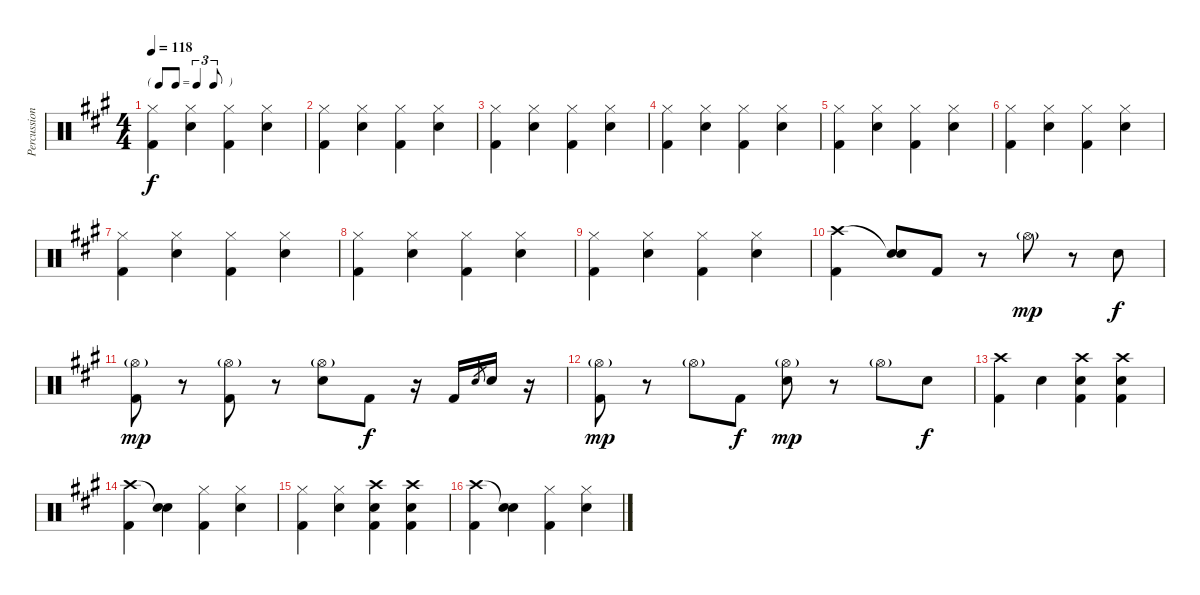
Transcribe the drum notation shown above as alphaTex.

\track ("Percussion" "Percussion") {instrument percussion}
\staff {score}
\articulation defaults
\ts (4 4)
\tf triplet8th
\tempo 118
\clef neutral
\ks a
("Hi-Hat (closed)" "Kick (hit) 2").4{dy f} ("Hi-Hat (closed)" "Snare (hit) 2").4 ("Hi-Hat (closed)" "Kick (hit) 2").4 ("Hi-Hat (closed)" "Snare (hit) 2").4 |
("Hi-Hat (closed)" "Kick (hit) 2").4 ("Hi-Hat (closed)" "Snare (hit) 2").4 ("Hi-Hat (closed)" "Kick (hit) 2").4 ("Hi-Hat (closed)" "Snare (hit) 2").4 |
("Hi-Hat (closed)" "Kick (hit) 2").4 ("Hi-Hat (closed)" "Snare (hit) 2").4 ("Hi-Hat (closed)" "Kick (hit) 2").4 ("Hi-Hat (closed)" "Snare (hit) 2").4 |
("Hi-Hat (closed)" "Kick (hit) 2").4 ("Hi-Hat (closed)" "Snare (hit) 2").4 ("Hi-Hat (closed)" "Kick (hit) 2").4 ("Hi-Hat (closed)" "Snare (hit) 2").4 |
("Hi-Hat (closed)" "Kick (hit) 2").4 ("Hi-Hat (closed)" "Snare (hit) 2").4 ("Hi-Hat (closed)" "Kick (hit) 2").4 ("Hi-Hat (closed)" "Snare (hit) 2").4 |
("Hi-Hat (closed)" "Kick (hit) 2").4 ("Hi-Hat (closed)" "Snare (hit) 2").4 ("Hi-Hat (closed)" "Kick (hit) 2").4 ("Hi-Hat (closed)" "Snare (hit) 2").4 |
("Hi-Hat (closed)" "Kick (hit) 2").4 ("Hi-Hat (closed)" "Snare (hit) 2").4 ("Hi-Hat (closed)" "Kick (hit) 2").4 ("Hi-Hat (closed)" "Snare (hit) 2").4 |
("Hi-Hat (closed)" "Kick (hit) 2").4 ("Hi-Hat (closed)" "Snare (hit) 2").4 ("Hi-Hat (closed)" "Kick (hit) 2").4 ("Hi-Hat (closed)" "Snare (hit) 2").4 |
("Hi-Hat (closed)" "Kick (hit) 2").4 ("Hi-Hat (closed)" "Snare (hit) 2").4 ("Hi-Hat (closed)" "Kick (hit) 2").4 ("Hi-Hat (closed)" "Snare (hit) 2").4 |
("Crash high (hit)" "Kick (hit) 2").4 ("Snare (hit)"{t} "Snare (hit) 2").8 "Kick (hit) 2".8 r.8 "Hi-Hat (open)"{g}.8{dy mp} r.8 "Snare (hit) 2".8{dy f} |
("Hi-Hat (open)"{g} "Kick (hit) 2").8{dy mp} r.8 ("Hi-Hat (open)"{g} "Kick (hit) 2").8 r.8 ("Hi-Hat (open)"{g} "Snare (hit) 2").8 "Kick (hit) 2".8{dy f} r.16 "Kick (hit) 2".16 "Snare (hit) 2".8{gr} "Snare (hit) 2".16 r.16 |
("Hi-Hat (open)"{g} "Kick (hit) 2").8{dy mp} r.8 "Hi-Hat (open)"{g}.8 "Kick (hit) 2".8{dy f} ("Hi-Hat (open)"{g} "Snare (hit) 2").8{dy mp} r.8 "Hi-Hat (open)"{g}.8 "Snare (hit) 2".8{dy f} |
("Crash high (hit)" "Kick (hit) 2").4 "Snare (hit) 2".4 ("Crash high (hit)" "Snare (hit) 2" "Kick (hit) 2").4 ("Crash high (hit)" "Snare (hit) 2" "Kick (hit) 2").4 |
("Crash high (hit)" "Kick (hit) 2").4 ("Snare (hit)"{t} "Snare (hit) 2").4 ("Hi-Hat (closed)" "Kick (hit) 2").4 ("Hi-Hat (closed)" "Snare (hit) 2").4 |
("Hi-Hat (closed)" "Kick (hit) 2").4 ("Hi-Hat (closed)" "Snare (hit) 2").4 ("Crash high (hit)" "Snare (hit) 2" "Kick (hit) 2").4 ("Crash high (hit)" "Snare (hit) 2" "Kick (hit) 2").4 |
("Crash high (hit)" "Kick (hit) 2").4 ("Snare (hit)"{t} "Snare (hit) 2").4 ("Hi-Hat (closed)" "Kick (hit) 2").4 ("Hi-Hat (closed)" "Snare (hit) 2").4
